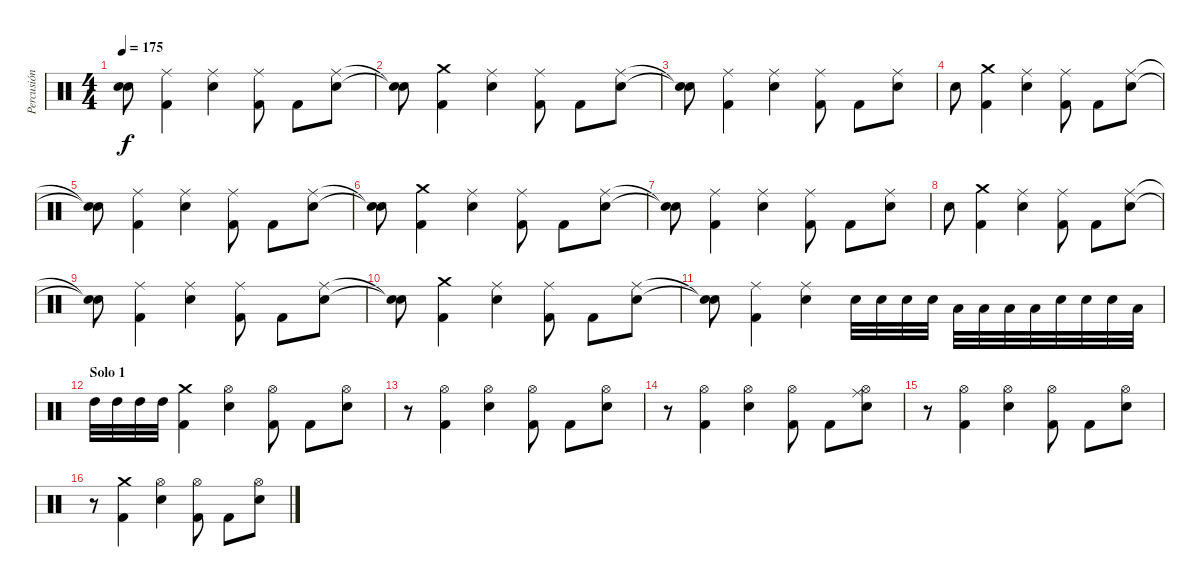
\track ("Percusión" "Percusión") {instrument percussion}
\staff {score}
\articulation defaults
\ts (4 4)
\tempo 175
\clef neutral
\ks c
("Snare (hit)"{t} "Snare (hit) 2"{t}).8{dy f} ("Ride (middle)" "Kick (hit) 2").4 ("Snare (hit) 2" "Ride (middle)").4 ("Ride (middle)" "Kick (hit) 2").8 "Kick (hit) 2".8 ("Ride (middle)" "Snare (hit) 2").8 |
("Snare (hit)"{t} "Snare (hit) 2"{t}).8 ("Crash medium (hit)" "Kick (hit) 2").4 ("Snare (hit) 2" "Ride (middle)").4 ("Ride (middle)" "Kick (hit) 2").8 "Kick (hit) 2".8 ("Ride (middle)" "Snare (hit) 2").8 |
("Snare (hit)"{t} "Snare (hit) 2"{t}).8 ("Ride (middle)" "Kick (hit) 2").4 ("Snare (hit) 2" "Ride (middle)").4 ("Ride (middle)" "Kick (hit) 2").8 "Kick (hit) 2".8 ("Ride (middle)" "Snare (hit) 2").8 |
"Snare (hit) 2".8 ("Crash medium (hit)" "Kick (hit) 2").4 ("Snare (hit) 2" "Ride (middle)").4 ("Ride (middle)" "Kick (hit) 2").8 "Kick (hit) 2".8 ("Ride (middle)" "Snare (hit) 2").8 |
("Snare (hit)"{t} "Snare (hit) 2"{t}).8 ("Ride (middle)" "Kick (hit) 2").4 ("Snare (hit) 2" "Ride (middle)").4 ("Ride (middle)" "Kick (hit) 2").8 "Kick (hit) 2".8 ("Ride (middle)" "Snare (hit) 2").8 |
("Snare (hit)"{t} "Snare (hit) 2"{t}).8 ("Crash medium (hit)" "Kick (hit) 2").4 ("Snare (hit) 2" "Ride (middle)").4 ("Ride (middle)" "Kick (hit) 2").8 "Kick (hit) 2".8 ("Ride (middle)" "Snare (hit) 2").8 |
("Snare (hit)"{t} "Snare (hit) 2"{t}).8 ("Ride (middle)" "Kick (hit) 2").4 ("Snare (hit) 2" "Ride (middle)").4 ("Ride (middle)" "Kick (hit) 2").8 "Kick (hit) 2".8 ("Ride (middle)" "Snare (hit) 2").8 |
"Snare (hit) 2".8 ("Crash medium (hit)" "Kick (hit) 2").4 ("Snare (hit) 2" "Ride (middle)").4 ("Ride (middle)" "Kick (hit) 2").8 "Kick (hit) 2".8 ("Ride (middle)" "Snare (hit) 2").8 |
("Snare (hit)"{t} "Snare (hit) 2"{t}).8 ("Ride (middle)" "Kick (hit) 2").4 ("Snare (hit) 2" "Ride (middle)").4 ("Ride (middle)" "Kick (hit) 2").8 "Kick (hit) 2".8 ("Ride (middle)" "Snare (hit) 2").8 |
("Snare (hit)"{t} "Snare (hit) 2"{t}).8 ("Crash medium (hit)" "Kick (hit) 2").4 ("Snare (hit) 2" "Ride (middle)").4 ("Ride (middle)" "Kick (hit) 2").8 "Kick (hit) 2".8 ("Ride (middle)" "Snare (hit) 2").8 |
("Snare (hit)"{t} "Snare (hit) 2"{t}).8 ("Ride (middle)" "Kick (hit) 2").4 ("Snare (hit) 2" "Ride (middle)").4 "Snare (hit) 2".32 "Snare (hit) 2".32 "Snare (hit) 2".32 "Snare (hit) 2".32 "Low Tom (hit)".32 "Low Tom (hit)".32 "Low Tom (hit)".32 "Low Tom (hit)".32 "Snare (hit) 2".32 "Snare (hit) 2".32 "Snare (hit) 2".32 "Low Tom (hit)".32 |
\section ("" "Solo 1")
"High Tom (hit)".32 "High Tom (hit)".32 "High Tom (hit)".32 "High Tom (hit)".32 ("Kick (hit) 2" "Crash medium (hit)").4 ("Hi-Hat (open)" "Snare (hit) 2").4 ("Kick (hit) 2" "Hi-Hat (open)").8 "Kick (hit) 2".8 ("Hi-Hat (open)" "Snare (hit) 2").8 |
r.8 ("Kick (hit) 2" "Hi-Hat (open)").4 ("Hi-Hat (open)" "Snare (hit) 2").4 ("Kick (hit) 2" "Hi-Hat (open)").8 "Kick (hit) 2".8 ("Hi-Hat (open)" "Snare (hit) 2").8 |
r.8 ("Kick (hit) 2" "Hi-Hat (open)").4 ("Hi-Hat (open)" "Snare (hit) 2").4 ("Kick (hit) 2" "Hi-Hat (open)").8 "Kick (hit) 2".8 ("Ride (middle)" "Hi-Hat (open)" "Snare (hit) 2").8 |
r.8 ("Kick (hit) 2" "Hi-Hat (open)").4 ("Hi-Hat (open)" "Snare (hit) 2").4 ("Kick (hit) 2" "Hi-Hat (open)").8 "Kick (hit) 2".8 ("Hi-Hat (open)" "Snare (hit) 2").8 |
r.8 ("Kick (hit) 2" "Crash medium (hit)").4 ("Hi-Hat (open)" "Snare (hit) 2").4 ("Kick (hit) 2" "Hi-Hat (open)").8 "Kick (hit) 2".8 ("Hi-Hat (open)" "Snare (hit) 2").8
